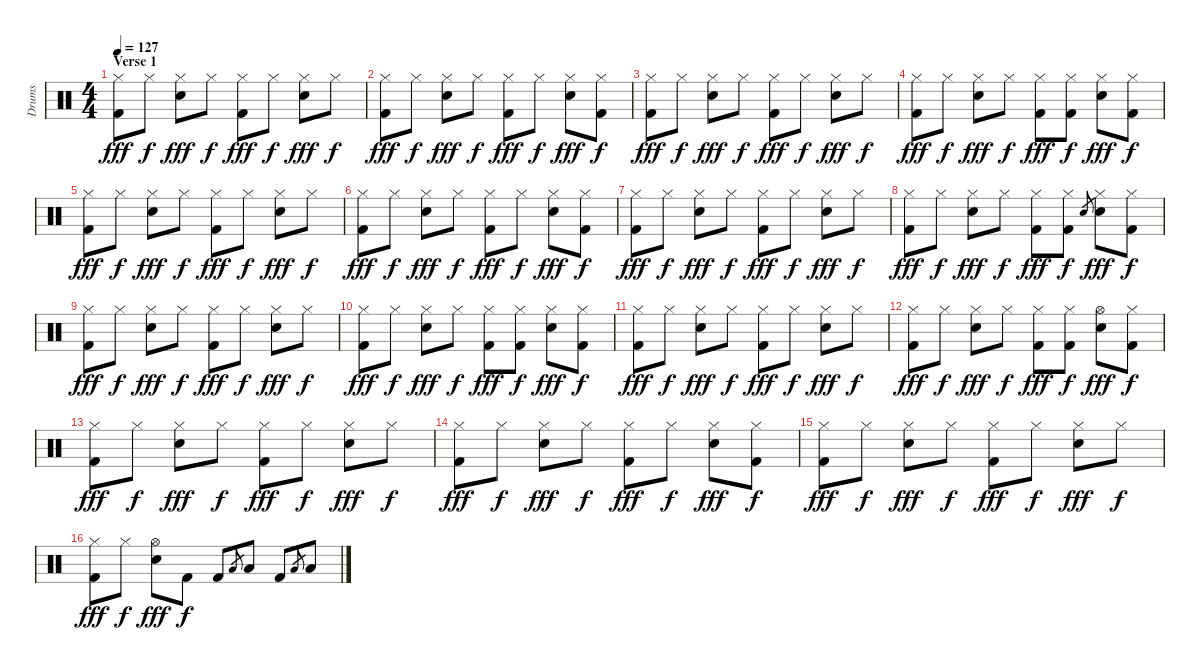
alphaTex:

\track ("Drums" "Drums") {instrument percussion}
\staff {score}
\articulation defaults
\ts (4 4)
\section ("" "Verse 1")
\tempo 127
\clef neutral
\ks c
("Hi-Hat (closed)" "Kick (hit) 2").8{dy fff} "Hi-Hat (closed)".8{dy f} ("Hi-Hat (closed)" "Snare (hit) 2").8{dy fff} "Hi-Hat (closed)".8{dy f} ("Hi-Hat (closed)" "Kick (hit) 2").8{dy fff} "Hi-Hat (closed)".8{dy f} ("Hi-Hat (closed)" "Snare (hit) 2").8{dy fff} "Hi-Hat (closed)".8{dy f} |
("Hi-Hat (closed)" "Kick (hit) 2").8{dy fff} "Hi-Hat (closed)".8{dy f} ("Hi-Hat (closed)" "Snare (hit) 2").8{dy fff} "Hi-Hat (closed)".8{dy f} ("Hi-Hat (closed)" "Kick (hit) 2").8{dy fff} "Hi-Hat (closed)".8{dy f} ("Hi-Hat (closed)" "Snare (hit) 2").8{dy fff} ("Hi-Hat (closed)" "Kick (hit) 2").8{dy f} |
("Hi-Hat (closed)" "Kick (hit) 2").8{dy fff} "Hi-Hat (closed)".8{dy f} ("Hi-Hat (closed)" "Snare (hit) 2").8{dy fff} "Hi-Hat (closed)".8{dy f} ("Hi-Hat (closed)" "Kick (hit) 2").8{dy fff} "Hi-Hat (closed)".8{dy f} ("Hi-Hat (closed)" "Snare (hit) 2").8{dy fff} "Hi-Hat (closed)".8{dy f} |
("Hi-Hat (closed)" "Kick (hit) 2").8{dy fff} "Hi-Hat (closed)".8{dy f} ("Hi-Hat (closed)" "Snare (hit) 2").8{dy fff} "Hi-Hat (closed)".8{dy f} ("Hi-Hat (closed)" "Kick (hit) 2").8{dy fff} ("Hi-Hat (closed)" "Kick (hit) 2").8{dy f} ("Hi-Hat (closed)" "Snare (hit) 2").8{dy fff} ("Hi-Hat (closed)" "Kick (hit) 2").8{dy f} |
("Hi-Hat (closed)" "Kick (hit) 2").8{dy fff} "Hi-Hat (closed)".8{dy f} ("Hi-Hat (closed)" "Snare (hit) 2").8{dy fff} "Hi-Hat (closed)".8{dy f} ("Hi-Hat (closed)" "Kick (hit) 2").8{dy fff} "Hi-Hat (closed)".8{dy f} ("Hi-Hat (closed)" "Snare (hit) 2").8{dy fff} "Hi-Hat (closed)".8{dy f} |
("Hi-Hat (closed)" "Kick (hit) 2").8{dy fff} "Hi-Hat (closed)".8{dy f} ("Hi-Hat (closed)" "Snare (hit) 2").8{dy fff} "Hi-Hat (closed)".8{dy f} ("Hi-Hat (closed)" "Kick (hit) 2").8{dy fff} "Hi-Hat (closed)".8{dy f} ("Hi-Hat (closed)" "Snare (hit) 2").8{dy fff} ("Hi-Hat (closed)" "Kick (hit) 2").8{dy f} |
("Hi-Hat (closed)" "Kick (hit) 2").8{dy fff} "Hi-Hat (closed)".8{dy f} ("Hi-Hat (closed)" "Snare (hit) 2").8{dy fff} "Hi-Hat (closed)".8{dy f} ("Hi-Hat (closed)" "Kick (hit) 2").8{dy fff} "Hi-Hat (closed)".8{dy f} ("Hi-Hat (closed)" "Snare (hit) 2").8{dy fff} "Hi-Hat (closed)".8{dy f} |
("Hi-Hat (closed)" "Kick (hit) 2").8{dy fff} "Hi-Hat (closed)".8{dy f} ("Hi-Hat (closed)" "Snare (hit) 2").8{dy fff} "Hi-Hat (closed)".8{dy f} ("Hi-Hat (closed)" "Kick (hit) 2").8{dy fff} ("Hi-Hat (closed)" "Kick (hit) 2").8{dy f} "Snare (hit) 2".8{gr} ("Hi-Hat (closed)" "Snare (hit) 2").8{dy fff} ("Hi-Hat (closed)" "Kick (hit) 2").8{dy f} |
("Hi-Hat (closed)" "Kick (hit) 2").8{dy fff} "Hi-Hat (closed)".8{dy f} ("Hi-Hat (closed)" "Snare (hit) 2").8{dy fff} "Hi-Hat (closed)".8{dy f} ("Hi-Hat (closed)" "Kick (hit) 2").8{dy fff} "Hi-Hat (closed)".8{dy f} ("Hi-Hat (closed)" "Snare (hit) 2").8{dy fff} "Hi-Hat (closed)".8{dy f} |
("Hi-Hat (closed)" "Kick (hit) 2").8{dy fff} "Hi-Hat (closed)".8{dy f} ("Hi-Hat (closed)" "Snare (hit) 2").8{dy fff} "Hi-Hat (closed)".8{dy f} ("Hi-Hat (closed)" "Kick (hit) 2").8{dy fff} ("Hi-Hat (closed)" "Kick (hit) 2").8{dy f} ("Hi-Hat (closed)" "Snare (hit) 2").8{dy fff} ("Hi-Hat (closed)" "Kick (hit) 2").8{dy f} |
("Hi-Hat (closed)" "Kick (hit) 2").8{dy fff} "Hi-Hat (closed)".8{dy f} ("Hi-Hat (closed)" "Snare (hit) 2").8{dy fff} "Hi-Hat (closed)".8{dy f} ("Hi-Hat (closed)" "Kick (hit) 2").8{dy fff} "Hi-Hat (closed)".8{dy f} ("Hi-Hat (closed)" "Snare (hit) 2").8{dy fff} "Hi-Hat (closed)".8{dy f} |
("Hi-Hat (closed)" "Kick (hit) 2").8{dy fff} "Hi-Hat (closed)".8{dy f} ("Hi-Hat (closed)" "Snare (hit) 2").8{dy fff} "Hi-Hat (closed)".8{dy f} ("Hi-Hat (closed)" "Kick (hit) 2").8{dy fff} ("Hi-Hat (closed)" "Kick (hit) 2").8{dy f} ("Hi-Hat (open)" "Snare (hit) 2").8{dy fff} ("Hi-Hat (closed)" "Kick (hit) 2").8{dy f} |
("Hi-Hat (closed)" "Kick (hit) 2").8{dy fff} "Hi-Hat (closed)".8{dy f} ("Hi-Hat (closed)" "Snare (hit) 2").8{dy fff} "Hi-Hat (closed)".8{dy f} ("Hi-Hat (closed)" "Kick (hit) 2").8{dy fff} "Hi-Hat (closed)".8{dy f} ("Hi-Hat (closed)" "Snare (hit) 2").8{dy fff} "Hi-Hat (closed)".8{dy f} |
("Hi-Hat (closed)" "Kick (hit) 2").8{dy fff} "Hi-Hat (closed)".8{dy f} ("Hi-Hat (closed)" "Snare (hit) 2").8{dy fff} "Hi-Hat (closed)".8{dy f} ("Hi-Hat (closed)" "Kick (hit) 2").8{dy fff} "Hi-Hat (closed)".8{dy f} ("Hi-Hat (closed)" "Snare (hit) 2").8{dy fff} ("Hi-Hat (closed)" "Kick (hit) 2").8{dy f} |
("Hi-Hat (closed)" "Kick (hit) 2").8{dy fff} "Hi-Hat (closed)".8{dy f} ("Hi-Hat (closed)" "Snare (hit) 2").8{dy fff} "Hi-Hat (closed)".8{dy f} ("Hi-Hat (closed)" "Kick (hit) 2").8{dy fff} "Hi-Hat (closed)".8{dy f} ("Hi-Hat (closed)" "Snare (hit) 2").8{dy fff} "Hi-Hat (closed)".8{dy f} |
("Hi-Hat (closed)" "Kick (hit) 2").8{dy fff} "Hi-Hat (closed)".8{dy f} ("Hi-Hat (open)" "Snare (hit) 2").8{dy fff} "Kick (hit) 2".8{dy f} "Kick (hit) 2".8 "Low Tom (hit)".8{gr} "Low Tom (hit)".8 "Kick (hit) 2".8 "Low Floor Tom (hit)".8{gr} "Low Floor Tom (hit)".8
